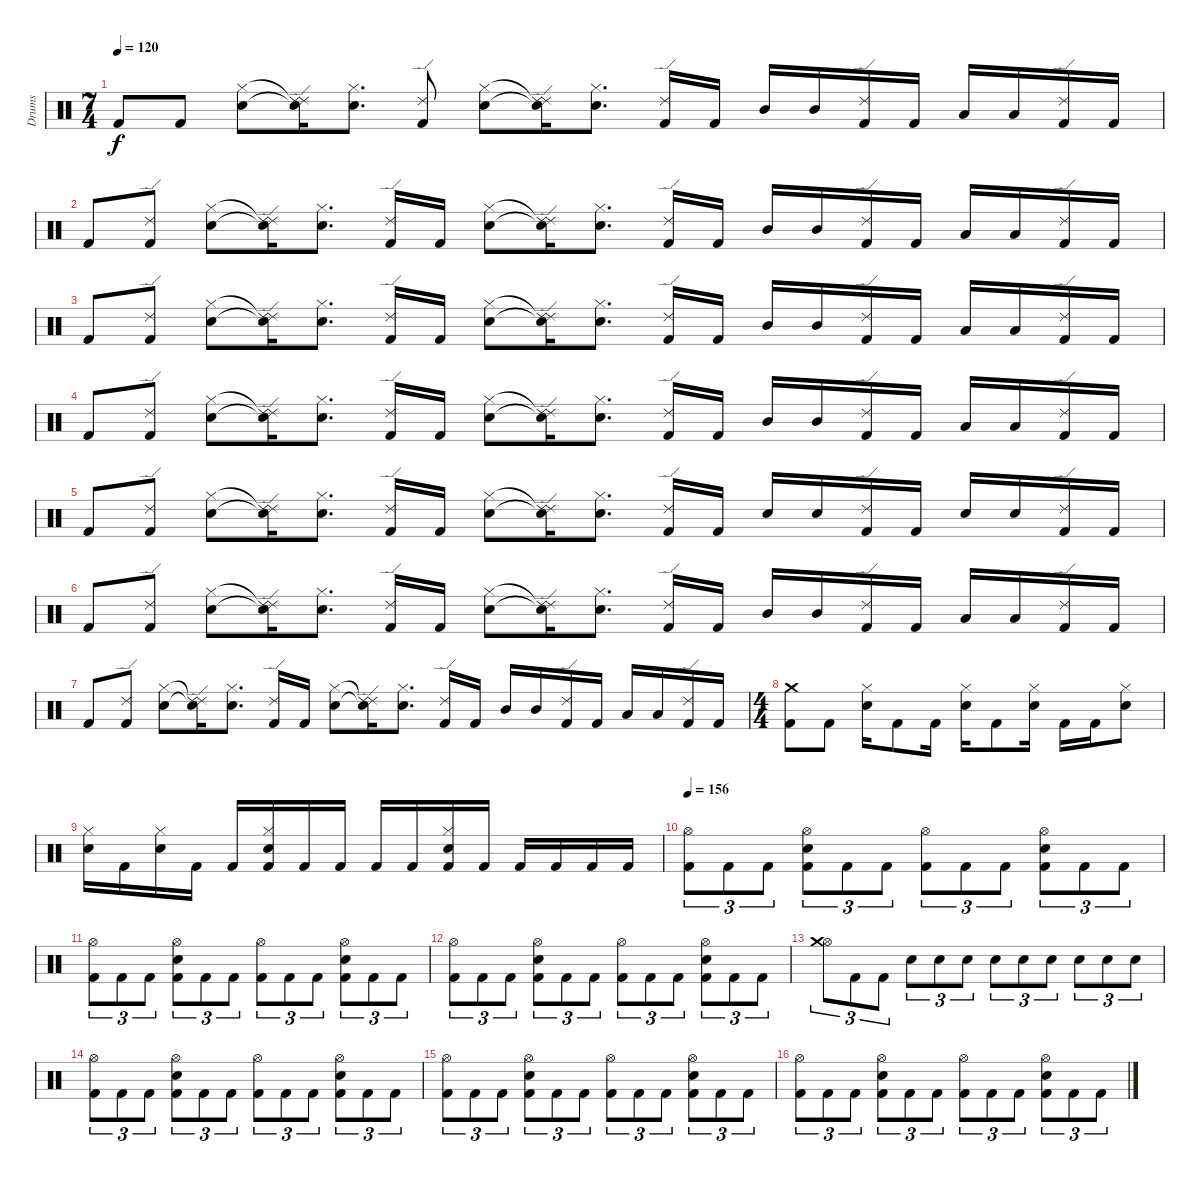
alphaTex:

\track ("Drums" "Drums") {instrument percussion}
\staff {score}
\articulation defaults
\ts (7 4)
\tempo 120
\clef neutral
\ks c "Kick (hit) 2".8{dy f} "Kick (hit) 2".8
("Hi-Hat (closed)" "Electric Snare (hit)").8 ("Ride (edge) 2"{t} "Snare (hit)"{t} "Ride (edge) 2").16 ("Hi-Hat (closed)" "Electric Snare (hit)").8{d} ("Ride (edge) 2" "Kick (hit) 2").8 ("Hi-Hat (closed)" "Electric Snare (hit)").8 ("Ride (edge) 2"{t} "Snare (hit)"{t} "Ride (edge) 2").16 ("Hi-Hat (closed)" "Electric Snare (hit)").8{d} ("Ride (edge) 2" "Kick (hit) 2").16 "Kick (hit) 2".16 "Mid Tom (hit)".16 "Mid Tom (hit)".16 ("Ride (edge) 2" "Kick (hit) 2").16 "Kick (hit) 2".16 "Low Tom (hit)".16 "Low Tom (hit)".16 ("Ride (edge) 2" "Kick (hit) 2").16 "Kick (hit) 2".16 |
"Kick (hit) 2".8 ("Ride (edge) 2" "Kick (hit) 2").8 ("Hi-Hat (closed)" "Electric Snare (hit)").8 ("Ride (edge) 2"{t} "Snare (hit)"{t} "Ride (edge) 2").16 ("Hi-Hat (closed)" "Electric Snare (hit)").8{d} ("Ride (edge) 2" "Kick (hit) 2").16 "Kick (hit) 2".16 ("Hi-Hat (closed)" "Electric Snare (hit)").8 ("Ride (edge) 2"{t} "Snare (hit)"{t} "Ride (edge) 2").16 ("Hi-Hat (closed)" "Electric Snare (hit)").8{d} ("Ride (edge) 2" "Kick (hit) 2").16 "Kick (hit) 2".16 "Mid Tom (hit)".16 "Mid Tom (hit)".16 ("Ride (edge) 2" "Kick (hit) 2").16 "Kick (hit) 2".16 "Low Tom (hit)".16 "Low Tom (hit)".16 ("Ride (edge) 2" "Kick (hit) 2").16 "Kick (hit) 2".16 |
"Kick (hit) 2".8 ("Ride (edge) 2" "Kick (hit) 2").8 ("Hi-Hat (closed)" "Electric Snare (hit)").8 ("Ride (edge) 2"{t} "Snare (hit)"{t} "Ride (edge) 2").16 ("Hi-Hat (closed)" "Electric Snare (hit)").8{d} ("Ride (edge) 2" "Kick (hit) 2").16 "Kick (hit) 2".16 ("Hi-Hat (closed)" "Electric Snare (hit)").8 ("Ride (edge) 2"{t} "Snare (hit)"{t} "Ride (edge) 2").16 ("Hi-Hat (closed)" "Electric Snare (hit)").8{d} ("Ride (edge) 2" "Kick (hit) 2").16 "Kick (hit) 2".16 "Mid Tom (hit)".16 "Mid Tom (hit)".16 ("Ride (edge) 2" "Kick (hit) 2").16 "Kick (hit) 2".16 "Low Tom (hit)".16 "Low Tom (hit)".16 ("Ride (edge) 2" "Kick (hit) 2").16 "Kick (hit) 2".16 |
"Kick (hit) 2".8 ("Ride (edge) 2" "Kick (hit) 2").8 ("Hi-Hat (closed)" "Electric Snare (hit)").8 ("Ride (edge) 2"{t} "Snare (hit)"{t} "Ride (edge) 2").16 ("Hi-Hat (closed)" "Electric Snare (hit)").8{d} ("Ride (edge) 2" "Kick (hit) 2").16 "Kick (hit) 2".16 ("Hi-Hat (closed)" "Electric Snare (hit)").8 ("Ride (edge) 2"{t} "Snare (hit)"{t} "Ride (edge) 2").16 ("Hi-Hat (closed)" "Electric Snare (hit)").8{d} ("Ride (edge) 2" "Kick (hit) 2").16 "Kick (hit) 2".16 "Mid Tom (hit)".16 "Mid Tom (hit)".16 ("Ride (edge) 2" "Kick (hit) 2").16 "Kick (hit) 2".16 "Low Tom (hit)".16 "Low Tom (hit)".16 ("Ride (edge) 2" "Kick (hit) 2").16 "Kick (hit) 2".16 |
"Kick (hit) 2".8 ("Ride (edge) 2" "Kick (hit) 2").8 ("Hi-Hat (closed)" "Electric Snare (hit)").8 ("Ride (edge) 2"{t} "Snare (hit)"{t} "Ride (edge) 2").16 ("Hi-Hat (closed)" "Electric Snare (hit)").8{d} ("Ride (edge) 2" "Kick (hit) 2").16 "Kick (hit) 2".16 ("Hi-Hat (closed)" "Electric Snare (hit)").8 ("Ride (edge) 2"{t} "Snare (hit)"{t} "Ride (edge) 2").16 ("Hi-Hat (closed)" "Electric Snare (hit)").8{d} ("Ride (edge) 2" "Kick (hit) 2").16 "Kick (hit) 2".16 "Electric Snare (hit)".16 "Electric Snare (hit)".16 ("Ride (edge) 2" "Kick (hit) 2").16 "Kick (hit) 2".16 "Electric Snare (hit)".16 "Electric Snare (hit)".16 ("Ride (edge) 2" "Kick (hit) 2").16 "Kick (hit) 2".16 |
"Kick (hit) 2".8 ("Ride (edge) 2" "Kick (hit) 2").8 ("Hi-Hat (closed)" "Electric Snare (hit)").8 ("Ride (edge) 2"{t} "Snare (hit)"{t} "Ride (edge) 2").16 ("Hi-Hat (closed)" "Electric Snare (hit)").8{d} ("Ride (edge) 2" "Kick (hit) 2").16 "Kick (hit) 2".16 ("Hi-Hat (closed)" "Electric Snare (hit)").8 ("Ride (edge) 2"{t} "Snare (hit)"{t} "Ride (edge) 2").16 ("Hi-Hat (closed)" "Electric Snare (hit)").8{d} ("Ride (edge) 2" "Kick (hit) 2").16 "Kick (hit) 2".16 "Mid Tom (hit)".16 "Mid Tom (hit)".16 ("Ride (edge) 2" "Kick (hit) 2").16 "Kick (hit) 2".16 "Low Tom (hit)".16 "Low Tom (hit)".16 ("Ride (edge) 2" "Kick (hit) 2").16 "Kick (hit) 2".16 |
"Kick (hit) 2".8 ("Ride (edge) 2" "Kick (hit) 2").8 ("Hi-Hat (closed)" "Electric Snare (hit)").8 ("Ride (edge) 2"{t} "Snare (hit)"{t} "Ride (edge) 2").16 ("Hi-Hat (closed)" "Electric Snare (hit)").8{d} ("Ride (edge) 2" "Kick (hit) 2").16 "Kick (hit) 2".16 ("Hi-Hat (closed)" "Electric Snare (hit)").8 ("Ride (edge) 2"{t} "Snare (hit)"{t} "Ride (edge) 2").16 ("Hi-Hat (closed)" "Electric Snare (hit)").8{d} ("Ride (edge) 2" "Kick (hit) 2").16 "Kick (hit) 2".16 "Mid Tom (hit)".16 "Mid Tom (hit)".16 ("Ride (edge) 2" "Kick (hit) 2").16 "Kick (hit) 2".16 "Low Tom (hit)".16 "Low Tom (hit)".16 ("Ride (edge) 2" "Kick (hit) 2").16 "Kick (hit) 2".16 |
\ts (4 4)
("Crash medium (hit)" "Kick (hit) 2").8 "Kick (hit) 2".8 ("Hi-Hat (closed)" "Electric Snare (hit)").16 "Kick (hit) 2".8 "Kick (hit) 2".16 ("Hi-Hat (closed)" "Electric Snare (hit)").16 "Kick (hit) 2".8 ("Electric Snare (hit)" "Hi-Hat (closed)").16 "Kick (hit) 2".16 "Kick (hit) 2".16 ("Hi-Hat (closed)" "Electric Snare (hit)").8 |
("Hi-Hat (closed)" "Electric Snare (hit)").16 "Kick (hit) 2".16 ("Hi-Hat (closed)" "Electric Snare (hit)").16 "Kick (hit) 2".16 "Kick (hit) 2".16 ("Hi-Hat (closed)" "Electric Snare (hit)" "Kick (hit) 2").16 "Kick (hit) 2".16 "Kick (hit) 2".16 "Kick (hit) 2".16 "Kick (hit) 2".16 ("Hi-Hat (closed)" "Electric Snare (hit)" "Kick (hit) 2").16 "Kick (hit) 2".16 "Kick (hit) 2".16 "Kick (hit) 2".16 "Kick (hit) 2".16 "Kick (hit) 2".16 |
\tempo 156
("Hi-Hat (open)" "Kick (hit) 2").8{tu (3 2)} "Kick (hit) 2".8{tu (3 2)} "Kick (hit) 2".8{tu (3 2)} ("Electric Snare (hit)" "Kick (hit) 2" "Hi-Hat (open)").8{tu (3 2)} "Kick (hit) 2".8{tu (3 2)} "Kick (hit) 2".8{tu (3 2)} ("Hi-Hat (open)" "Kick (hit) 2").8{tu (3 2)} "Kick (hit) 2".8{tu (3 2)} "Kick (hit) 2".8{tu (3 2)} ("Electric Snare (hit)" "Kick (hit) 2" "Hi-Hat (open)").8{tu (3 2)} "Kick (hit) 2".8{tu (3 2)} "Kick (hit) 2".8{tu (3 2)} |
("Hi-Hat (open)" "Kick (hit) 2").8{tu (3 2)} "Kick (hit) 2".8{tu (3 2)} "Kick (hit) 2".8{tu (3 2)} ("Electric Snare (hit)" "Kick (hit) 2" "Hi-Hat (open)").8{tu (3 2)} "Kick (hit) 2".8{tu (3 2)} "Kick (hit) 2".8{tu (3 2)} ("Hi-Hat (open)" "Kick (hit) 2").8{tu (3 2)} "Kick (hit) 2".8{tu (3 2)} "Kick (hit) 2".8{tu (3 2)} ("Electric Snare (hit)" "Kick (hit) 2" "Hi-Hat (open)").8{tu (3 2)} "Kick (hit) 2".8{tu (3 2)} "Kick (hit) 2".8{tu (3 2)} |
("Hi-Hat (open)" "Kick (hit) 2").8{tu (3 2)} "Kick (hit) 2".8{tu (3 2)} "Kick (hit) 2".8{tu (3 2)} ("Electric Snare (hit)" "Kick (hit) 2" "Hi-Hat (open)").8{tu (3 2)} "Kick (hit) 2".8{tu (3 2)} "Kick (hit) 2".8{tu (3 2)} ("Hi-Hat (open)" "Kick (hit) 2").8{tu (3 2)} "Kick (hit) 2".8{tu (3 2)} "Kick (hit) 2".8{tu (3 2)} ("Electric Snare (hit)" "Kick (hit) 2" "Hi-Hat (open)").8{tu (3 2)} "Kick (hit) 2".8{tu (3 2)} "Kick (hit) 2".8{tu (3 2)} |
("Hi-Hat (open)" "Crash medium (hit)").8{tu (3 2)} "Kick (hit) 2".8{tu (3 2)} "Kick (hit) 2".8{tu (3 2)} "Electric Snare (hit)".8{tu (3 2)} "Electric Snare (hit)".8{tu (3 2)} "Electric Snare (hit)".8{tu (3 2)} "Electric Snare (hit)".8{tu (3 2)} "Electric Snare (hit)".8{tu (3 2)} "Electric Snare (hit)".8{tu (3 2)} "Electric Snare (hit)".8{tu (3 2)} "Electric Snare (hit)".8{tu (3 2)} "Electric Snare (hit)".8{tu (3 2)} |
("Hi-Hat (open)" "Kick (hit) 2").8{tu (3 2)} "Kick (hit) 2".8{tu (3 2)} "Kick (hit) 2".8{tu (3 2)} ("Electric Snare (hit)" "Kick (hit) 2" "Hi-Hat (open)").8{tu (3 2)} "Kick (hit) 2".8{tu (3 2)} "Kick (hit) 2".8{tu (3 2)} ("Hi-Hat (open)" "Kick (hit) 2").8{tu (3 2)} "Kick (hit) 2".8{tu (3 2)} "Kick (hit) 2".8{tu (3 2)} ("Electric Snare (hit)" "Kick (hit) 2" "Hi-Hat (open)").8{tu (3 2)} "Kick (hit) 2".8{tu (3 2)} "Kick (hit) 2".8{tu (3 2)} |
("Hi-Hat (open)" "Kick (hit) 2").8{tu (3 2)} "Kick (hit) 2".8{tu (3 2)} "Kick (hit) 2".8{tu (3 2)} ("Electric Snare (hit)" "Kick (hit) 2" "Hi-Hat (open)").8{tu (3 2)} "Kick (hit) 2".8{tu (3 2)} "Kick (hit) 2".8{tu (3 2)} ("Hi-Hat (open)" "Kick (hit) 2").8{tu (3 2)} "Kick (hit) 2".8{tu (3 2)} "Kick (hit) 2".8{tu (3 2)} ("Electric Snare (hit)" "Kick (hit) 2" "Hi-Hat (open)").8{tu (3 2)} "Kick (hit) 2".8{tu (3 2)} "Kick (hit) 2".8{tu (3 2)} |
("Hi-Hat (open)" "Kick (hit) 2").8{tu (3 2)} "Kick (hit) 2".8{tu (3 2)} "Kick (hit) 2".8{tu (3 2)} ("Electric Snare (hit)" "Kick (hit) 2" "Hi-Hat (open)").8{tu (3 2)} "Kick (hit) 2".8{tu (3 2)} "Kick (hit) 2".8{tu (3 2)} ("Hi-Hat (open)" "Kick (hit) 2").8{tu (3 2)} "Kick (hit) 2".8{tu (3 2)} "Kick (hit) 2".8{tu (3 2)} ("Electric Snare (hit)" "Kick (hit) 2" "Hi-Hat (open)").8{tu (3 2)} "Kick (hit) 2".8{tu (3 2)} "Kick (hit) 2".8{tu (3 2)}
